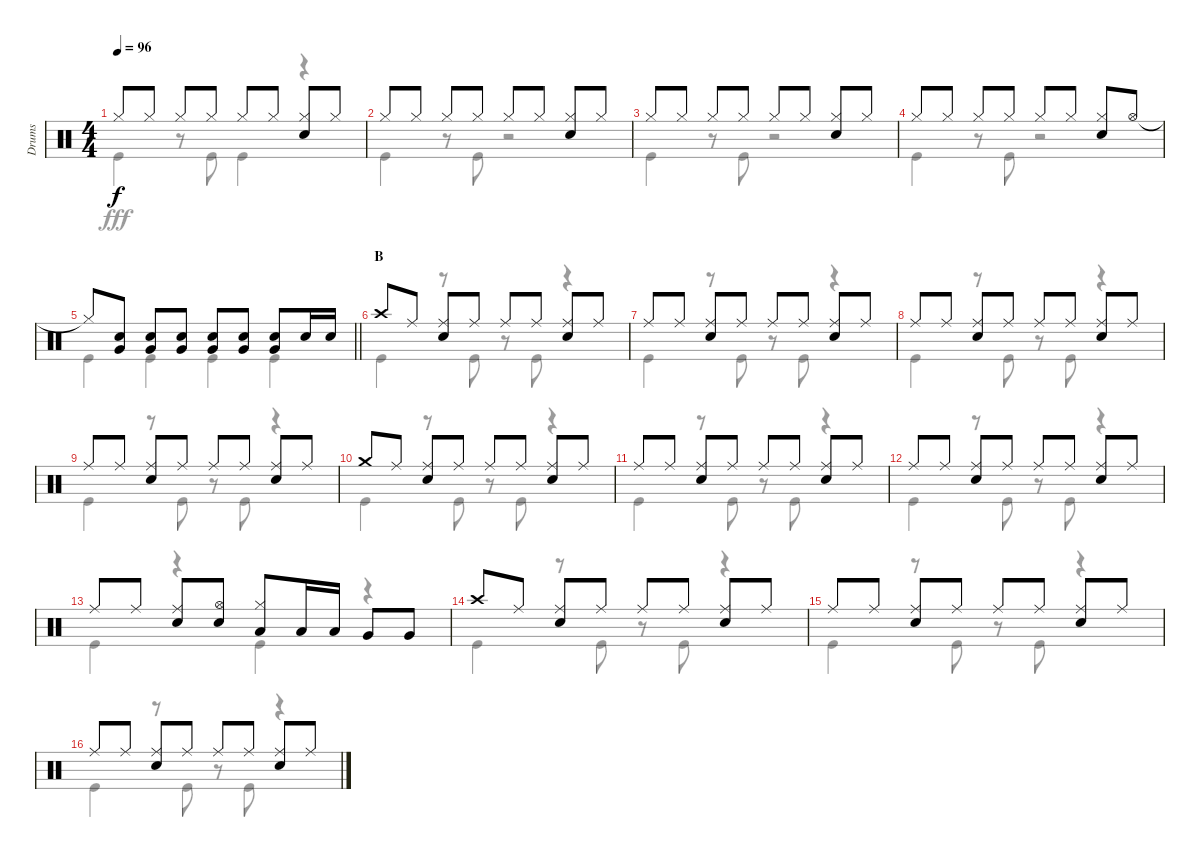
\track ("Drums" "Drums") {instrument percussion}
\staff {score}
\articulation defaults
\voice
\ts (4 4)
\tempo 96
\clef neutral
\ks c "Hi-Hat (closed)".8{dy f} "Hi-Hat (closed)".8 "Hi-Hat (closed)".8 "Hi-Hat (closed)".8 "Hi-Hat (closed)".8 "Hi-Hat (closed)".8
("Hi-Hat (closed)" "Snare (hit) 2").8 "Hi-Hat (closed)".8 |
"Hi-Hat (closed)".8 "Hi-Hat (closed)".8 "Hi-Hat (closed)".8 "Hi-Hat (closed)".8 "Hi-Hat (closed)".8 "Hi-Hat (closed)".8 ("Hi-Hat (closed)" "Snare (hit) 2").8 "Hi-Hat (closed)".8 |
"Hi-Hat (closed)".8 "Hi-Hat (closed)".8 "Hi-Hat (closed)".8 "Hi-Hat (closed)".8 "Hi-Hat (closed)".8 "Hi-Hat (closed)".8 ("Hi-Hat (closed)" "Snare (hit) 2").8 "Hi-Hat (closed)".8 |
"Hi-Hat (closed)".8 "Hi-Hat (closed)".8 "Hi-Hat (closed)".8 "Hi-Hat (closed)".8 "Hi-Hat (closed)".8 "Hi-Hat (closed)".8 ("Hi-Hat (closed)" "Snare (hit) 2").8 "Hi-Hat (open)".8 |
\barLineRight lightlight "Hi-Hat (closed)"{t}.8
("Snare (hit) 2" "Very Low Tom (hit)").8 ("Snare (hit) 2" "Very Low Tom (hit)").8 ("Snare (hit) 2" "Very Low Tom (hit)").8 ("Snare (hit) 2" "Very Low Tom (hit)").8 ("Snare (hit) 2" "Very Low Tom (hit)").8 ("Snare (hit) 2" "Very Low Tom (hit)").8 "Snare (hit) 2".16 "Snare (hit) 2".16 |
\section ("" "B")
"Crash high (hit)".8 "Ride (middle)".8 ("Ride (middle)" "Snare (hit) 2").8 "Ride (middle)".8 "Ride (middle)".8 "Ride (middle)".8 ("Ride (middle)" "Snare (hit) 2").8 "Ride (middle)".8 |
"Ride (middle)".8 "Ride (middle)".8 ("Ride (middle)" "Snare (hit) 2").8 "Ride (middle)".8 "Ride (middle)".8 "Ride (middle)".8 ("Ride (middle)" "Snare (hit) 2").8 "Ride (middle)".8 |
"Ride (middle)".8 "Ride (middle)".8 ("Ride (middle)" "Snare (hit) 2").8 "Ride (middle)".8 "Ride (middle)".8 "Ride (middle)".8 ("Ride (middle)" "Snare (hit) 2").8 "Ride (middle)".8 |
"Ride (middle)".8 "Ride (middle)".8 ("Ride (middle)" "Snare (hit) 2").8 "Ride (middle)".8 "Ride (middle)".8 "Ride (middle)".8 ("Ride (middle)" "Snare (hit) 2").8 "Ride (middle)".8 |
"Crash medium (hit)".8 "Ride (middle)".8 ("Ride (middle)" "Snare (hit) 2").8 "Ride (middle)".8 "Ride (middle)".8 "Ride (middle)".8 ("Ride (middle)" "Snare (hit) 2").8 "Ride (middle)".8 |
"Ride (middle)".8 "Ride (middle)".8 ("Ride (middle)" "Snare (hit) 2").8 "Ride (middle)".8 "Ride (middle)".8 "Ride (middle)".8 ("Ride (middle)" "Snare (hit) 2").8 "Ride (middle)".8 |
"Ride (middle)".8 "Ride (middle)".8 ("Ride (middle)" "Snare (hit) 2").8 "Ride (middle)".8 "Ride (middle)".8 "Ride (middle)".8 ("Ride (middle)" "Snare (hit) 2").8 "Ride (middle)".8 |
"Ride (middle)".8 "Ride (middle)".8 ("Ride (middle)" "Snare (hit) 2").8 ("Hi-Hat (open)" "Snare (hit) 2").8 ("Hi-Hat (closed)" "Low Tom (hit)").8 "Low Tom (hit)".16 "Low Tom (hit)".16 "Very Low Tom (hit)".8 "Very Low Tom (hit)".8 |
"Crash high (hit)".8 "Ride (middle)".8 ("Ride (middle)" "Snare (hit) 2").8 "Ride (middle)".8 "Ride (middle)".8 "Ride (middle)".8 ("Ride (middle)" "Snare (hit) 2").8 "Ride (middle)".8 |
"Ride (middle)".8 "Ride (middle)".8 ("Ride (middle)" "Snare (hit) 2").8 "Ride (middle)".8 "Ride (middle)".8 "Ride (middle)".8 ("Ride (middle)" "Snare (hit) 2").8 "Ride (middle)".8 |
"Ride (middle)".8 "Ride (middle)".8 ("Ride (middle)" "Snare (hit) 2").8 "Ride (middle)".8 "Ride (middle)".8 "Ride (middle)".8 ("Ride (middle)" "Snare (hit) 2").8 "Ride (middle)".8
\voice
\clef neutral
\ottava regular
\simile none
\ks c "Kick (hit)".4{dy fff}
r.8 "Kick (hit)".8 "Kick (hit)".4 r.4 |
"Kick (hit)".4 r.8 "Kick (hit)".8 r.2 |
"Kick (hit)".4 r.8 "Kick (hit)".8 r.2 |
"Kick (hit)".4 r.8 "Kick (hit)".8 r.2 |
\barLineRight lightlight "Kick (hit)".4 "Kick (hit)".4 "Kick (hit)".4 "Kick (hit)".4
|
"Kick (hit)".4 r.8 "Kick (hit)".8 r.8 "Kick (hit)".8 r.4 |
"Kick (hit)".4 r.8 "Kick (hit)".8 r.8 "Kick (hit)".8 r.4 |
"Kick (hit)".4 r.8 "Kick (hit)".8 r.8 "Kick (hit)".8 r.4 |
"Kick (hit)".4 r.8 "Kick (hit)".8 r.8 "Kick (hit)".8 r.4 |
"Kick (hit)".4 r.8 "Kick (hit)".8 r.8 "Kick (hit)".8 r.4 |
"Kick (hit)".4 r.8 "Kick (hit)".8 r.8 "Kick (hit)".8 r.4 |
"Kick (hit)".4 r.8 "Kick (hit)".8 r.8 "Kick (hit)".8 r.4 |
"Kick (hit)".4 r.4 "Kick (hit)".4 r.4 |
"Kick (hit)".4 r.8 "Kick (hit)".8 r.8 "Kick (hit)".8 r.4 |
"Kick (hit)".4 r.8 "Kick (hit)".8 r.8 "Kick (hit)".8 r.4 |
"Kick (hit)".4 r.8 "Kick (hit)".8 r.8 "Kick (hit)".8 r.4
